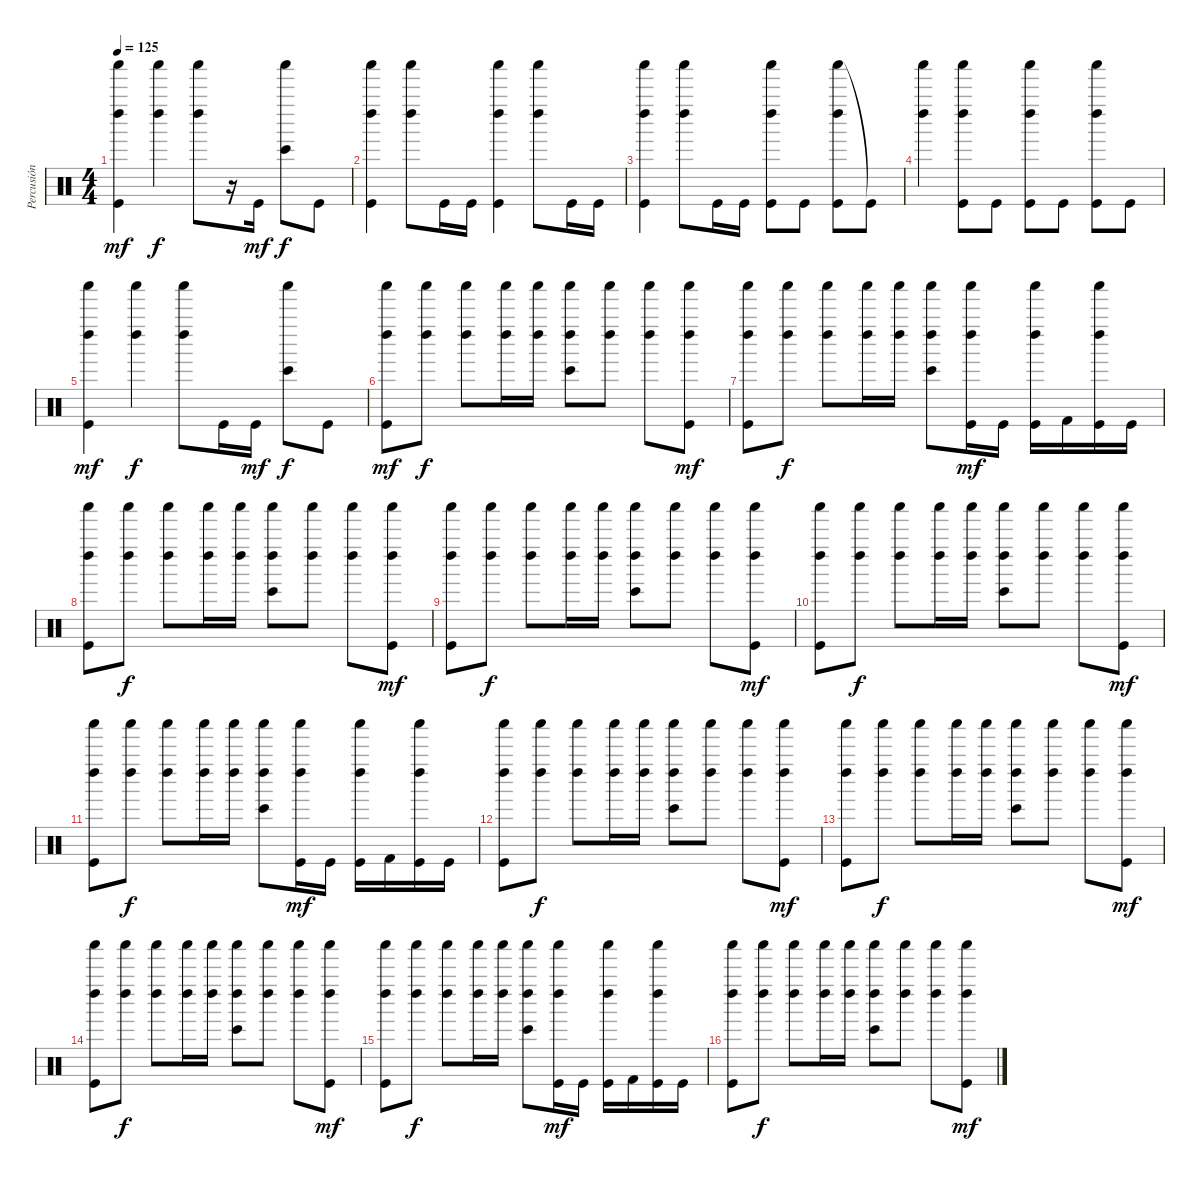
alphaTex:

\track ("Percusión" "Percusión") {instrument percussion}
\staff {score}
\articulation defaults
\ts (4 4)
\tempo 125
\clef neutral
\ks c
("Shaker (hit)" "Left Maraca (hit)" "Kick (hit)").4{dy mf} ("Shaker (hit)" "Left Maraca (hit)").4{dy f} ("Shaker (hit)" "Left Maraca (hit)").8 r.16 "Kick (hit)".16{dy mf} ("Shaker (hit)" "Bongo High (hit)").8{dy f} "Kick (hit)".8 |
("Shaker (hit)" "Left Maraca (hit)" "Kick (hit)").4 ("Shaker (hit)" "Left Maraca (hit)").8 "Kick (hit)".16 "Kick (hit)".16 ("Shaker (hit)" "Left Maraca (hit)" "Kick (hit)").4 ("Shaker (hit)" "Left Maraca (hit)").8 "Kick (hit)".16 "Kick (hit)".16 |
("Shaker (hit)" "Left Maraca (hit)" "Kick (hit)").4 ("Shaker (hit)" "Left Maraca (hit)").8 "Kick (hit)".16 "Kick (hit)".16 ("Shaker (hit)" "Left Maraca (hit)" "Kick (hit)").8 "Kick (hit)".8 ("Shaker (hit)" "Left Maraca (hit)" "Kick (hit)").8 "Kick (hit)"{t}.8 |
("Shaker (hit)" "Left Maraca (hit)").4 ("Shaker (hit)" "Left Maraca (hit)" "Kick (hit)").8 "Kick (hit)".8 ("Shaker (hit)" "Left Maraca (hit)" "Kick (hit)").8 "Kick (hit)".8 ("Shaker (hit)" "Left Maraca (hit)" "Kick (hit)").8 "Kick (hit)".8 |
("Shaker (hit)" "Left Maraca (hit)" "Kick (hit)").4{dy mf} ("Shaker (hit)" "Left Maraca (hit)").4{dy f} ("Shaker (hit)" "Left Maraca (hit)").8 "Kick (hit)".16 "Kick (hit)".16{dy mf} ("Shaker (hit)" "Bongo High (hit)").8{dy f} "Kick (hit)".8 |
("Shaker (hit)" "Left Maraca (hit)" "Kick (hit)").8{dy mf} ("Shaker (hit)" "Left Maraca (hit)").8{dy f} ("Shaker (hit)" "Left Maraca (hit)").8 ("Shaker (hit)" "Left Maraca (hit)").16 ("Shaker (hit)" "Left Maraca (hit)").16 ("Shaker (hit)" "Left Maraca (hit)" "Bongo High (hit)").8 ("Shaker (hit)" "Left Maraca (hit)").8 ("Shaker (hit)" "Left Maraca (hit)").8 ("Shaker (hit)" "Left Maraca (hit)" "Kick (hit)").8{dy mf} |
("Shaker (hit)" "Left Maraca (hit)" "Kick (hit)").8 ("Shaker (hit)" "Left Maraca (hit)").8{dy f} ("Shaker (hit)" "Left Maraca (hit)").8 ("Shaker (hit)" "Left Maraca (hit)").16 ("Shaker (hit)" "Left Maraca (hit)").16 ("Shaker (hit)" "Left Maraca (hit)" "Bongo High (hit)").8 ("Shaker (hit)" "Left Maraca (hit)" "Kick (hit)").16{dy mf} "Kick (hit)".16 ("Shaker (hit)" "Left Maraca (hit)" "Kick (hit)").16 "Kick (hit) 2".16 ("Shaker (hit)" "Left Maraca (hit)" "Kick (hit)").16 "Kick (hit)".16 |
("Shaker (hit)" "Left Maraca (hit)" "Kick (hit)").8 ("Shaker (hit)" "Left Maraca (hit)").8{dy f} ("Shaker (hit)" "Left Maraca (hit)").8 ("Shaker (hit)" "Left Maraca (hit)").16 ("Shaker (hit)" "Left Maraca (hit)").16 ("Shaker (hit)" "Left Maraca (hit)" "Bongo High (hit)").8 ("Shaker (hit)" "Left Maraca (hit)").8 ("Shaker (hit)" "Left Maraca (hit)").8 ("Shaker (hit)" "Left Maraca (hit)" "Kick (hit)").8{dy mf} |
("Shaker (hit)" "Left Maraca (hit)" "Kick (hit)").8 ("Shaker (hit)" "Left Maraca (hit)").8{dy f} ("Shaker (hit)" "Left Maraca (hit)").8 ("Shaker (hit)" "Left Maraca (hit)").16 ("Shaker (hit)" "Left Maraca (hit)").16 ("Shaker (hit)" "Left Maraca (hit)" "Bongo High (hit)").8 ("Shaker (hit)" "Left Maraca (hit)").8 ("Shaker (hit)" "Left Maraca (hit)").8 ("Shaker (hit)" "Left Maraca (hit)" "Kick (hit)").8{dy mf} |
("Shaker (hit)" "Left Maraca (hit)" "Kick (hit)").8 ("Shaker (hit)" "Left Maraca (hit)").8{dy f} ("Shaker (hit)" "Left Maraca (hit)").8 ("Shaker (hit)" "Left Maraca (hit)").16 ("Shaker (hit)" "Left Maraca (hit)").16 ("Shaker (hit)" "Left Maraca (hit)" "Bongo High (hit)").8 ("Shaker (hit)" "Left Maraca (hit)").8 ("Shaker (hit)" "Left Maraca (hit)").8 ("Shaker (hit)" "Left Maraca (hit)" "Kick (hit)").8{dy mf} |
("Shaker (hit)" "Left Maraca (hit)" "Kick (hit)").8 ("Shaker (hit)" "Left Maraca (hit)").8{dy f} ("Shaker (hit)" "Left Maraca (hit)").8 ("Shaker (hit)" "Left Maraca (hit)").16 ("Shaker (hit)" "Left Maraca (hit)").16 ("Shaker (hit)" "Left Maraca (hit)" "Bongo High (hit)").8 ("Shaker (hit)" "Left Maraca (hit)" "Kick (hit)").16{dy mf} "Kick (hit)".16 ("Shaker (hit)" "Left Maraca (hit)" "Kick (hit)").16 "Kick (hit) 2".16 ("Shaker (hit)" "Left Maraca (hit)" "Kick (hit)").16 "Kick (hit)".16 |
("Shaker (hit)" "Left Maraca (hit)" "Kick (hit)").8 ("Shaker (hit)" "Left Maraca (hit)").8{dy f} ("Shaker (hit)" "Left Maraca (hit)").8 ("Shaker (hit)" "Left Maraca (hit)").16 ("Shaker (hit)" "Left Maraca (hit)").16 ("Shaker (hit)" "Left Maraca (hit)" "Bongo High (hit)").8 ("Shaker (hit)" "Left Maraca (hit)").8 ("Shaker (hit)" "Left Maraca (hit)").8 ("Shaker (hit)" "Left Maraca (hit)" "Kick (hit)").8{dy mf} |
("Shaker (hit)" "Left Maraca (hit)" "Kick (hit)").8 ("Shaker (hit)" "Left Maraca (hit)").8{dy f} ("Shaker (hit)" "Left Maraca (hit)").8 ("Shaker (hit)" "Left Maraca (hit)").16 ("Shaker (hit)" "Left Maraca (hit)").16 ("Shaker (hit)" "Left Maraca (hit)" "Bongo High (hit)").8 ("Shaker (hit)" "Left Maraca (hit)").8 ("Shaker (hit)" "Left Maraca (hit)").8 ("Shaker (hit)" "Left Maraca (hit)" "Kick (hit)").8{dy mf} |
("Shaker (hit)" "Left Maraca (hit)" "Kick (hit)").8 ("Shaker (hit)" "Left Maraca (hit)").8{dy f} ("Shaker (hit)" "Left Maraca (hit)").8 ("Shaker (hit)" "Left Maraca (hit)").16 ("Shaker (hit)" "Left Maraca (hit)").16 ("Shaker (hit)" "Left Maraca (hit)" "Bongo High (hit)").8 ("Shaker (hit)" "Left Maraca (hit)").8 ("Shaker (hit)" "Left Maraca (hit)").8 ("Shaker (hit)" "Left Maraca (hit)" "Kick (hit)").8{dy mf} |
("Shaker (hit)" "Left Maraca (hit)" "Kick (hit)").8 ("Shaker (hit)" "Left Maraca (hit)").8{dy f} ("Shaker (hit)" "Left Maraca (hit)").8 ("Shaker (hit)" "Left Maraca (hit)").16 ("Shaker (hit)" "Left Maraca (hit)").16 ("Shaker (hit)" "Left Maraca (hit)" "Bongo High (hit)").8 ("Shaker (hit)" "Left Maraca (hit)" "Kick (hit)").16{dy mf} "Kick (hit)".16 ("Shaker (hit)" "Left Maraca (hit)" "Kick (hit)").16 "Kick (hit) 2".16 ("Shaker (hit)" "Left Maraca (hit)" "Kick (hit)").16 "Kick (hit)".16 |
("Shaker (hit)" "Left Maraca (hit)" "Kick (hit)").8 ("Shaker (hit)" "Left Maraca (hit)").8{dy f} ("Shaker (hit)" "Left Maraca (hit)").8 ("Shaker (hit)" "Left Maraca (hit)").16 ("Shaker (hit)" "Left Maraca (hit)").16 ("Shaker (hit)" "Left Maraca (hit)" "Bongo High (hit)").8 ("Shaker (hit)" "Left Maraca (hit)").8 ("Shaker (hit)" "Left Maraca (hit)").8 ("Shaker (hit)" "Left Maraca (hit)" "Kick (hit)").8{dy mf}
